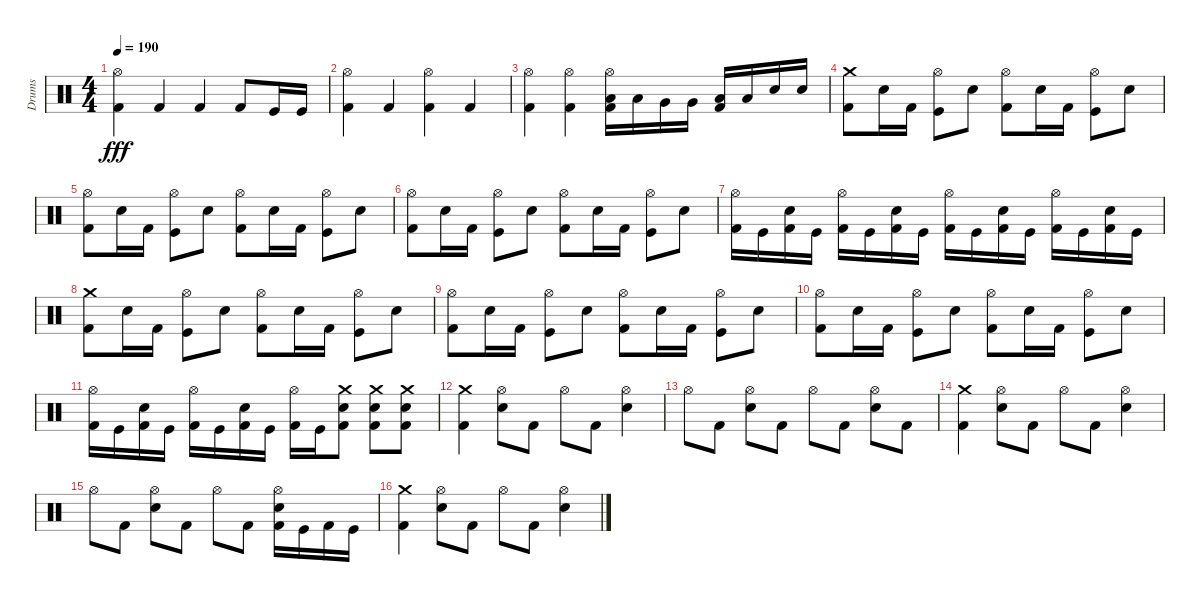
\track ("Drums" "Drums") {instrument percussion}
\staff {score}
\articulation defaults
\ts (4 4)
\tempo 190
\clef neutral
\ks c
("Hi-Hat (open)" "Kick (hit) 2").4{dy fff} "Kick (hit) 2".4 "Kick (hit) 2".4 "Kick (hit) 2".8 "Kick (hit)".16 "Kick (hit)".16 |
("Hi-Hat (open)" "Kick (hit) 2").4 "Kick (hit) 2".4 ("Hi-Hat (open)" "Kick (hit) 2").4 "Kick (hit) 2".4 |
("Hi-Hat (open)" "Kick (hit) 2").4 ("Hi-Hat (open)" "Kick (hit) 2").4 ("Hi-Hat (open)" "Low Tom (hit)" "Kick (hit) 2").16 "Low Tom (hit)".16 "Very Low Tom (hit)".16 "Very Low Tom (hit)".16 ("Low Floor Tom (hit)" "Kick (hit) 2").16 "Low Floor Tom (hit)".16 "Electric Snare (hit)".16 "Electric Snare (hit)".16 |
("Crash medium (hit)" "Kick (hit) 2").8 "Electric Snare (hit)".16 "Kick (hit) 2".16 ("Hi-Hat (open)" "Kick (hit)").8 "Electric Snare (hit)".8 ("Hi-Hat (open)" "Kick (hit) 2").8 "Electric Snare (hit)".16 "Kick (hit) 2".16 ("Hi-Hat (open)" "Kick (hit)").8 "Electric Snare (hit)".8 |
("Hi-Hat (open)" "Kick (hit) 2").8 "Electric Snare (hit)".16 "Kick (hit) 2".16 ("Hi-Hat (open)" "Kick (hit)").8 "Electric Snare (hit)".8 ("Hi-Hat (open)" "Kick (hit) 2").8 "Electric Snare (hit)".16 "Kick (hit) 2".16 ("Hi-Hat (open)" "Kick (hit)").8 "Electric Snare (hit)".8 |
("Hi-Hat (open)" "Kick (hit) 2").8 "Electric Snare (hit)".16 "Kick (hit) 2".16 ("Hi-Hat (open)" "Kick (hit)").8 "Electric Snare (hit)".8 ("Hi-Hat (open)" "Kick (hit) 2").8 "Electric Snare (hit)".16 "Kick (hit) 2".16 ("Hi-Hat (open)" "Kick (hit)").8 "Electric Snare (hit)".8 |
("Hi-Hat (open)" "Kick (hit) 2").16 "Kick (hit)".16 ("Electric Snare (hit)" "Kick (hit) 2").16 "Kick (hit)".16 ("Hi-Hat (open)" "Kick (hit) 2").16 "Kick (hit)".16 ("Electric Snare (hit)" "Kick (hit) 2").16 "Kick (hit)".16 ("Hi-Hat (open)" "Kick (hit) 2").16 "Kick (hit)".16 ("Electric Snare (hit)" "Kick (hit) 2").16 "Kick (hit)".16 ("Hi-Hat (open)" "Kick (hit) 2").16 "Kick (hit)".16 ("Electric Snare (hit)" "Kick (hit) 2").16 "Kick (hit)".16 |
("Crash medium (hit)" "Kick (hit) 2").8 "Electric Snare (hit)".16 "Kick (hit) 2".16 ("Hi-Hat (open)" "Kick (hit)").8 "Electric Snare (hit)".8 ("Hi-Hat (open)" "Kick (hit) 2").8 "Electric Snare (hit)".16 "Kick (hit) 2".16 ("Hi-Hat (open)" "Kick (hit)").8 "Electric Snare (hit)".8 |
("Hi-Hat (open)" "Kick (hit) 2").8 "Electric Snare (hit)".16 "Kick (hit) 2".16 ("Hi-Hat (open)" "Kick (hit)").8 "Electric Snare (hit)".8 ("Hi-Hat (open)" "Kick (hit) 2").8 "Electric Snare (hit)".16 "Kick (hit) 2".16 ("Hi-Hat (open)" "Kick (hit)").8 "Electric Snare (hit)".8 |
("Hi-Hat (open)" "Kick (hit) 2").8 "Electric Snare (hit)".16 "Kick (hit) 2".16 ("Hi-Hat (open)" "Kick (hit)").8 "Electric Snare (hit)".8 ("Hi-Hat (open)" "Kick (hit) 2").8 "Electric Snare (hit)".16 "Kick (hit) 2".16 ("Hi-Hat (open)" "Kick (hit)").8 "Electric Snare (hit)".8 |
("Hi-Hat (open)" "Kick (hit) 2").16 "Kick (hit)".16 ("Electric Snare (hit)" "Kick (hit) 2").16 "Kick (hit)".16 ("Hi-Hat (open)" "Kick (hit) 2").16 "Kick (hit)".16 ("Electric Snare (hit)" "Kick (hit) 2").16 "Kick (hit)".16 ("Hi-Hat (open)" "Kick (hit) 2").16 "Kick (hit)".16 ("Crash medium (hit)" "Electric Snare (hit)" "Kick (hit) 2").8 ("Crash medium (hit)" "Electric Snare (hit)" "Kick (hit) 2").8 ("Crash medium (hit)" "Electric Snare (hit)" "Kick (hit) 2").8 |
("Crash medium (hit)" "Kick (hit) 2").4 ("Hi-Hat (open)" "Electric Snare (hit)").8 "Kick (hit) 2".8 "Hi-Hat (open)".8 "Kick (hit) 2".8 ("Hi-Hat (open)" "Electric Snare (hit)").4 |
"Hi-Hat (open)".8 "Kick (hit) 2".8 ("Hi-Hat (open)" "Electric Snare (hit)").8 "Kick (hit) 2".8 "Hi-Hat (open)".8 "Kick (hit) 2".8 ("Hi-Hat (open)" "Electric Snare (hit)").8 "Kick (hit) 2".8 |
("Crash medium (hit)" "Kick (hit) 2").4 ("Hi-Hat (open)" "Electric Snare (hit)").8 "Kick (hit) 2".8 "Hi-Hat (open)".8 "Kick (hit) 2".8 ("Hi-Hat (open)" "Electric Snare (hit)").4 |
"Hi-Hat (open)".8 "Kick (hit) 2".8 ("Hi-Hat (open)" "Electric Snare (hit)").8 "Kick (hit) 2".8 "Hi-Hat (open)".8 "Kick (hit) 2".8 ("Hi-Hat (open)" "Electric Snare (hit)" "Kick (hit) 2").16 "Kick (hit)".16 "Kick (hit) 2".16 "Kick (hit)".16 |
("Crash medium (hit)" "Kick (hit) 2").4 ("Hi-Hat (open)" "Electric Snare (hit)").8 "Kick (hit) 2".8 "Hi-Hat (open)".8 "Kick (hit) 2".8 ("Hi-Hat (open)" "Electric Snare (hit)").4
